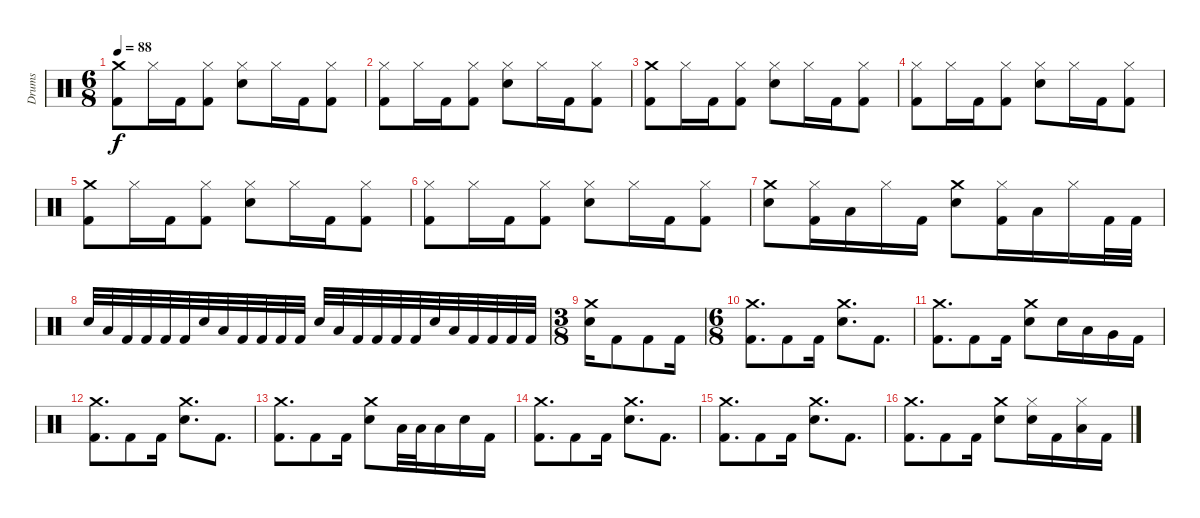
\track ("Drums" "Drums") {instrument percussion}
\staff {score}
\articulation defaults
\ts (6 8)
\tempo 88
\clef neutral
\ks c
("Crash medium (hit)" "Kick (hit) 2").8{dy f} "Hi-Hat (closed)".16 "Kick (hit) 2".16 ("Hi-Hat (closed)" "Kick (hit) 2").8 ("Hi-Hat (closed)" "Electric Snare (hit)").8 "Hi-Hat (closed)".16 "Kick (hit) 2".16 ("Hi-Hat (closed)" "Kick (hit) 2").8 |
("Hi-Hat (closed)" "Kick (hit) 2").8 "Hi-Hat (closed)".16 "Kick (hit) 2".16 ("Hi-Hat (closed)" "Kick (hit) 2").8 ("Hi-Hat (closed)" "Electric Snare (hit)").8 "Hi-Hat (closed)".16 "Kick (hit) 2".16 ("Hi-Hat (closed)" "Kick (hit) 2").8 |
("Crash medium (hit)" "Kick (hit) 2").8 "Hi-Hat (closed)".16 "Kick (hit) 2".16 ("Hi-Hat (closed)" "Kick (hit) 2").8 ("Hi-Hat (closed)" "Electric Snare (hit)").8 "Hi-Hat (closed)".16 "Kick (hit) 2".16 ("Hi-Hat (closed)" "Kick (hit) 2").8 |
("Hi-Hat (closed)" "Kick (hit) 2").8 "Hi-Hat (closed)".16 "Kick (hit) 2".16 ("Hi-Hat (closed)" "Kick (hit) 2").8 ("Hi-Hat (closed)" "Electric Snare (hit)").8 "Hi-Hat (closed)".16 "Kick (hit) 2".16 ("Hi-Hat (closed)" "Kick (hit) 2").8 |
("Crash medium (hit)" "Kick (hit) 2").8 "Hi-Hat (closed)".16 "Kick (hit) 2".16 ("Hi-Hat (closed)" "Kick (hit) 2").8 ("Hi-Hat (closed)" "Electric Snare (hit)").8 "Hi-Hat (closed)".16 "Kick (hit) 2".16 ("Hi-Hat (closed)" "Kick (hit) 2").8 |
("Hi-Hat (closed)" "Kick (hit) 2").8 "Hi-Hat (closed)".16 "Kick (hit) 2".16 ("Hi-Hat (closed)" "Kick (hit) 2").8 ("Hi-Hat (closed)" "Electric Snare (hit)").8 "Hi-Hat (closed)".16 "Kick (hit) 2".16 ("Hi-Hat (closed)" "Kick (hit) 2").8 |
("Crash medium (hit)" "Electric Snare (hit)").8 ("Hi-Hat (closed)" "Kick (hit) 2").16 "Low Tom (hit)".16 "Hi-Hat (closed)".16 "Kick (hit) 2".16 ("Crash medium (hit)" "Electric Snare (hit)").8 ("Hi-Hat (closed)" "Kick (hit) 2").16 "Low Tom (hit)".16 "Hi-Hat (closed)".16 "Kick (hit) 2".32 "Kick (hit) 2".32 |
"Electric Snare (hit)".32 "Low Tom (hit)".32 "Kick (hit) 2".32 "Kick (hit) 2".32 "Kick (hit) 2".32 "Kick (hit) 2".32 "Electric Snare (hit)".32 "Low Tom (hit)".32 "Kick (hit) 2".32 "Kick (hit) 2".32 "Kick (hit) 2".32 "Kick (hit) 2".32 "Electric Snare (hit)".32 "Low Tom (hit)".32 "Kick (hit) 2".32 "Kick (hit) 2".32 "Kick (hit) 2".32 "Kick (hit) 2".32 "Electric Snare (hit)".32 "Low Tom (hit)".32 "Kick (hit) 2".32 "Kick (hit) 2".32 "Kick (hit) 2".32 "Kick (hit) 2".32 |
\ts (3 8)
("Crash medium (hit)" "Electric Snare (hit)").16 "Kick (hit) 2".8 "Kick (hit) 2".8 "Kick (hit) 2".16 |
\ts (6 8)
("Crash medium (hit)" "Kick (hit) 2").8{d} "Kick (hit) 2".8 "Kick (hit) 2".16 ("Crash medium (hit)" "Electric Snare (hit)").8{d} "Kick (hit) 2".8{d} |
("Crash medium (hit)" "Kick (hit) 2").8{d} "Kick (hit) 2".8 "Kick (hit) 2".16 ("Crash medium (hit)" "Electric Snare (hit)").8 "Electric Snare (hit)".16 "Low Tom (hit)".16 "Very Low Tom (hit)".16 "Kick (hit) 2".16 |
("Crash medium (hit)" "Kick (hit) 2").8{d} "Kick (hit) 2".8 "Kick (hit) 2".16 ("Crash medium (hit)" "Electric Snare (hit)").8{d} "Kick (hit) 2".8{d} |
("Crash medium (hit)" "Kick (hit) 2").8{d} "Kick (hit) 2".8 "Kick (hit) 2".16 ("Crash medium (hit)" "Electric Snare (hit)").8 "Low Tom (hit)".32 "Low Tom (hit)".32 "Low Tom (hit)".16 "Electric Snare (hit)".16 "Kick (hit) 2".16 |
("Crash medium (hit)" "Kick (hit) 2").8{d} "Kick (hit) 2".8 "Kick (hit) 2".16 ("Crash medium (hit)" "Electric Snare (hit)").8{d} "Kick (hit) 2".8{d} |
("Crash medium (hit)" "Kick (hit) 2").8{d} "Kick (hit) 2".8 "Kick (hit) 2".16 ("Crash medium (hit)" "Electric Snare (hit)").8{d} "Kick (hit) 2".8{d} |
("Crash medium (hit)" "Kick (hit) 2").8{d} "Kick (hit) 2".8 "Kick (hit) 2".16 ("Crash medium (hit)" "Electric Snare (hit)").8 ("Hi-Hat (closed)" "Electric Snare (hit)").16 "Kick (hit) 2".16 ("Hi-Hat (closed)" "Low Tom (hit)").16 "Kick (hit) 2".16
